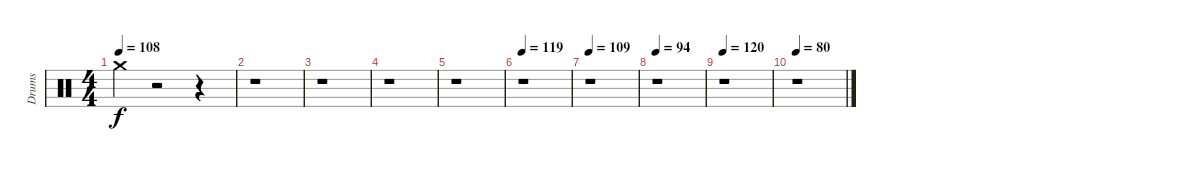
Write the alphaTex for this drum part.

\track ("Drums" "Drums") {instrument percussion}
\staff {score}
\articulation defaults
\ts (4 4)
\tempo 108
\clef neutral
\ks c "Crash medium (hit)".4{dy f}
r.2 r.4 |
r.1 |
r.1 |
r.1 |
r.1 |
\tempo 119
r.1 |
\tempo 109
r.1 |
\tempo 94
r.1 |
\tempo 120
r.1 |
\tempo 80
r.1
